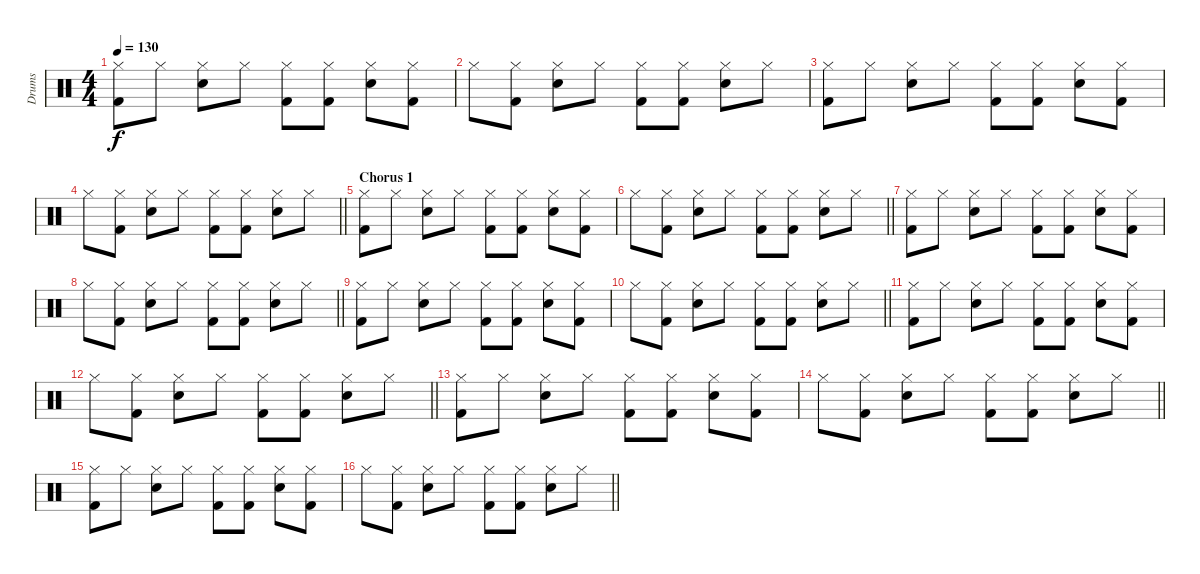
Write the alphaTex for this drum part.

\track ("Drums" "Drums") {instrument percussion}
\staff {score}
\articulation defaults
\ts (4 4)
\tempo 130
\clef neutral
\ks c
("Hi-Hat (closed)" "Kick (hit) 2").8{dy f} "Hi-Hat (closed)".8 ("Hi-Hat (closed)" "Electric Snare (hit)").8 "Hi-Hat (closed)".8 ("Hi-Hat (closed)" "Kick (hit) 2").8 ("Hi-Hat (closed)" "Kick (hit) 2").8 ("Hi-Hat (closed)" "Electric Snare (hit)").8 ("Hi-Hat (closed)" "Kick (hit) 2").8 |
"Hi-Hat (closed)".8 ("Hi-Hat (closed)" "Kick (hit) 2").8 ("Hi-Hat (closed)" "Electric Snare (hit)").8 "Hi-Hat (closed)".8 ("Hi-Hat (closed)" "Kick (hit) 2").8 ("Hi-Hat (closed)" "Kick (hit) 2").8 ("Hi-Hat (closed)" "Electric Snare (hit)").8 "Hi-Hat (closed)".8 |
("Hi-Hat (closed)" "Kick (hit) 2").8 "Hi-Hat (closed)".8 ("Hi-Hat (closed)" "Electric Snare (hit)").8 "Hi-Hat (closed)".8 ("Hi-Hat (closed)" "Kick (hit) 2").8 ("Hi-Hat (closed)" "Kick (hit) 2").8 ("Hi-Hat (closed)" "Electric Snare (hit)").8 ("Hi-Hat (closed)" "Kick (hit) 2").8 |
\barLineRight lightlight "Hi-Hat (closed)".8
("Hi-Hat (closed)" "Kick (hit) 2").8 ("Hi-Hat (closed)" "Electric Snare (hit)").8 "Hi-Hat (closed)".8 ("Hi-Hat (closed)" "Kick (hit) 2").8 ("Hi-Hat (closed)" "Kick (hit) 2").8 ("Hi-Hat (closed)" "Electric Snare (hit)").8 "Hi-Hat (closed)".8 |
\section ("" "Chorus 1")
("Hi-Hat (closed)" "Kick (hit) 2").8 "Hi-Hat (closed)".8 ("Hi-Hat (closed)" "Electric Snare (hit)").8 "Hi-Hat (closed)".8 ("Hi-Hat (closed)" "Kick (hit) 2").8 ("Hi-Hat (closed)" "Kick (hit) 2").8 ("Hi-Hat (closed)" "Electric Snare (hit)").8 ("Hi-Hat (closed)" "Kick (hit) 2").8 |
\barLineRight lightlight "Hi-Hat (closed)".8
("Hi-Hat (closed)" "Kick (hit) 2").8 ("Hi-Hat (closed)" "Electric Snare (hit)").8 "Hi-Hat (closed)".8 ("Hi-Hat (closed)" "Kick (hit) 2").8 ("Hi-Hat (closed)" "Kick (hit) 2").8 ("Hi-Hat (closed)" "Electric Snare (hit)").8 "Hi-Hat (closed)".8 |
("Hi-Hat (closed)" "Kick (hit) 2").8 "Hi-Hat (closed)".8 ("Hi-Hat (closed)" "Electric Snare (hit)").8 "Hi-Hat (closed)".8 ("Hi-Hat (closed)" "Kick (hit) 2").8 ("Hi-Hat (closed)" "Kick (hit) 2").8 ("Hi-Hat (closed)" "Electric Snare (hit)").8 ("Hi-Hat (closed)" "Kick (hit) 2").8 |
\barLineRight lightlight "Hi-Hat (closed)".8
("Hi-Hat (closed)" "Kick (hit) 2").8 ("Hi-Hat (closed)" "Electric Snare (hit)").8 "Hi-Hat (closed)".8 ("Hi-Hat (closed)" "Kick (hit) 2").8 ("Hi-Hat (closed)" "Kick (hit) 2").8 ("Hi-Hat (closed)" "Electric Snare (hit)").8 "Hi-Hat (closed)".8 |
("Hi-Hat (closed)" "Kick (hit) 2").8 "Hi-Hat (closed)".8 ("Hi-Hat (closed)" "Electric Snare (hit)").8 "Hi-Hat (closed)".8 ("Hi-Hat (closed)" "Kick (hit) 2").8 ("Hi-Hat (closed)" "Kick (hit) 2").8 ("Hi-Hat (closed)" "Electric Snare (hit)").8 ("Hi-Hat (closed)" "Kick (hit) 2").8 |
\barLineRight lightlight "Hi-Hat (closed)".8
("Hi-Hat (closed)" "Kick (hit) 2").8 ("Hi-Hat (closed)" "Electric Snare (hit)").8 "Hi-Hat (closed)".8 ("Hi-Hat (closed)" "Kick (hit) 2").8 ("Hi-Hat (closed)" "Kick (hit) 2").8 ("Hi-Hat (closed)" "Electric Snare (hit)").8 "Hi-Hat (closed)".8 |
("Hi-Hat (closed)" "Kick (hit) 2").8 "Hi-Hat (closed)".8 ("Hi-Hat (closed)" "Electric Snare (hit)").8 "Hi-Hat (closed)".8 ("Hi-Hat (closed)" "Kick (hit) 2").8 ("Hi-Hat (closed)" "Kick (hit) 2").8 ("Hi-Hat (closed)" "Electric Snare (hit)").8 ("Hi-Hat (closed)" "Kick (hit) 2").8 |
\barLineRight lightlight "Hi-Hat (closed)".8
("Hi-Hat (closed)" "Kick (hit) 2").8 ("Hi-Hat (closed)" "Electric Snare (hit)").8 "Hi-Hat (closed)".8 ("Hi-Hat (closed)" "Kick (hit) 2").8 ("Hi-Hat (closed)" "Kick (hit) 2").8 ("Hi-Hat (closed)" "Electric Snare (hit)").8 "Hi-Hat (closed)".8 |
("Hi-Hat (closed)" "Kick (hit) 2").8 "Hi-Hat (closed)".8 ("Hi-Hat (closed)" "Electric Snare (hit)").8 "Hi-Hat (closed)".8 ("Hi-Hat (closed)" "Kick (hit) 2").8 ("Hi-Hat (closed)" "Kick (hit) 2").8 ("Hi-Hat (closed)" "Electric Snare (hit)").8 ("Hi-Hat (closed)" "Kick (hit) 2").8 |
\barLineRight lightlight "Hi-Hat (closed)".8
("Hi-Hat (closed)" "Kick (hit) 2").8 ("Hi-Hat (closed)" "Electric Snare (hit)").8 "Hi-Hat (closed)".8 ("Hi-Hat (closed)" "Kick (hit) 2").8 ("Hi-Hat (closed)" "Kick (hit) 2").8 ("Hi-Hat (closed)" "Electric Snare (hit)").8 "Hi-Hat (closed)".8 |
("Hi-Hat (closed)" "Kick (hit) 2").8 "Hi-Hat (closed)".8 ("Hi-Hat (closed)" "Electric Snare (hit)").8 "Hi-Hat (closed)".8 ("Hi-Hat (closed)" "Kick (hit) 2").8 ("Hi-Hat (closed)" "Kick (hit) 2").8 ("Hi-Hat (closed)" "Electric Snare (hit)").8 ("Hi-Hat (closed)" "Kick (hit) 2").8 |
\barLineRight lightlight "Hi-Hat (closed)".8
("Hi-Hat (closed)" "Kick (hit) 2").8 ("Hi-Hat (closed)" "Electric Snare (hit)").8 "Hi-Hat (closed)".8 ("Hi-Hat (closed)" "Kick (hit) 2").8 ("Hi-Hat (closed)" "Kick (hit) 2").8 ("Hi-Hat (closed)" "Electric Snare (hit)").8 "Hi-Hat (closed)".8
